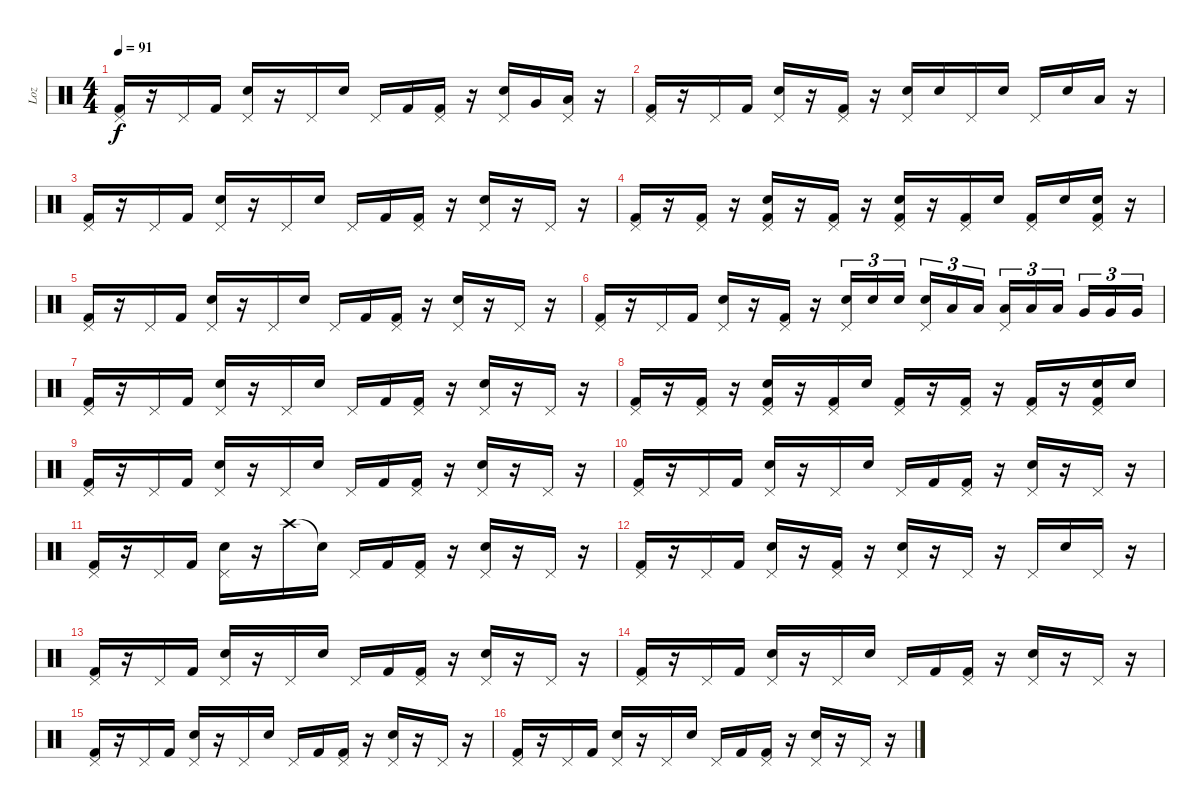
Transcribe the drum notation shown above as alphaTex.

\track ("Loz" "Loz") {instrument percussion}
\staff {score}
\articulation defaults
\ts (4 4)
\tempo 91
\clef neutral
\ks c
("Pedal Hi-Hat (hit)" "Kick (hit) 2").16{dy f} r.16 "Pedal Hi-Hat (hit)".16 "Kick (hit) 2".16 ("Pedal Hi-Hat (hit)" "Electric Snare (hit)").16 r.16 "Pedal Hi-Hat (hit)".16 "Electric Snare (hit)".16 "Pedal Hi-Hat (hit)".16 "Kick (hit) 2".16 ("Pedal Hi-Hat (hit)" "Kick (hit) 2").16 r.16 ("Pedal Hi-Hat (hit)" "Electric Snare (hit)").16 "Very Low Tom (hit)".16 ("Pedal Hi-Hat (hit)" "Low Floor Tom (hit)").16 r.16 |
("Pedal Hi-Hat (hit)" "Kick (hit) 2").16 r.16 "Pedal Hi-Hat (hit)".16 "Kick (hit) 2".16 ("Pedal Hi-Hat (hit)" "Electric Snare (hit)").16 r.16 ("Pedal Hi-Hat (hit)" "Kick (hit) 2").16 r.16 ("Pedal Hi-Hat (hit)" "Electric Snare (hit)").16 "Electric Snare (hit)".16 "Pedal Hi-Hat (hit)".16 "Electric Snare (hit)".16 "Pedal Hi-Hat (hit)".16 "Electric Snare (hit)".16 "Low Tom (hit)".16 r.16 |
("Pedal Hi-Hat (hit)" "Kick (hit) 2").16 r.16 "Pedal Hi-Hat (hit)".16 "Kick (hit) 2".16 ("Pedal Hi-Hat (hit)" "Electric Snare (hit)").16 r.16 "Pedal Hi-Hat (hit)".16 "Electric Snare (hit)".16 "Pedal Hi-Hat (hit)".16 "Kick (hit) 2".16 ("Pedal Hi-Hat (hit)" "Kick (hit) 2").16 r.16 ("Pedal Hi-Hat (hit)" "Electric Snare (hit)").16 r.16 "Pedal Hi-Hat (hit)".16 r.16 |
("Pedal Hi-Hat (hit)" "Kick (hit) 2").16 r.16 ("Pedal Hi-Hat (hit)" "Kick (hit) 2").16 r.16 ("Pedal Hi-Hat (hit)" "Electric Snare (hit)" "Kick (hit) 2").16 r.16 ("Pedal Hi-Hat (hit)" "Kick (hit) 2").16 r.16 ("Pedal Hi-Hat (hit)" "Electric Snare (hit)" "Kick (hit) 2").16 r.16 ("Pedal Hi-Hat (hit)" "Kick (hit) 2").16 "Electric Snare (hit)".16 ("Pedal Hi-Hat (hit)" "Kick (hit) 2").16 "Electric Snare (hit)".16 ("Pedal Hi-Hat (hit)" "Electric Snare (hit)" "Kick (hit) 2").16 r.16 |
("Pedal Hi-Hat (hit)" "Kick (hit) 2").16 r.16 "Pedal Hi-Hat (hit)".16 "Kick (hit) 2".16 ("Pedal Hi-Hat (hit)" "Electric Snare (hit)").16 r.16 "Pedal Hi-Hat (hit)".16 "Electric Snare (hit)".16 "Pedal Hi-Hat (hit)".16 "Kick (hit) 2".16 ("Pedal Hi-Hat (hit)" "Kick (hit) 2").16 r.16 ("Pedal Hi-Hat (hit)" "Electric Snare (hit)").16 r.16 "Pedal Hi-Hat (hit)".16 r.16 |
("Pedal Hi-Hat (hit)" "Kick (hit) 2").16 r.16 "Pedal Hi-Hat (hit)".16 "Kick (hit) 2".16 ("Pedal Hi-Hat (hit)" "Electric Snare (hit)").16 r.16 ("Pedal Hi-Hat (hit)" "Kick (hit) 2").16 r.16 ("Pedal Hi-Hat (hit)" "Electric Snare (hit)").16{tu (3 2)} "Electric Snare (hit)".16{tu (3 2)} "Electric Snare (hit)".16{tu (3 2)} ("Pedal Hi-Hat (hit)" "Electric Snare (hit)").16{tu (3 2)} "Low Tom (hit)".16{tu (3 2)} "Low Tom (hit)".16{tu (3 2)} ("Pedal Hi-Hat (hit)" "Low Tom (hit)").16{tu (3 2)} "Low Tom (hit)".16{tu (3 2)} "Low Tom (hit)".16{tu (3 2)} "Very Low Tom (hit)".16{tu (3 2)} "Very Low Tom (hit)".16{tu (3 2)} "Very Low Tom (hit)".16{tu (3 2)} |
("Pedal Hi-Hat (hit)" "Kick (hit) 2").16 r.16 "Pedal Hi-Hat (hit)".16 "Kick (hit) 2".16 ("Pedal Hi-Hat (hit)" "Electric Snare (hit)").16 r.16 "Pedal Hi-Hat (hit)".16 "Electric Snare (hit)".16 "Pedal Hi-Hat (hit)".16 "Kick (hit) 2".16 ("Pedal Hi-Hat (hit)" "Kick (hit) 2").16 r.16 ("Pedal Hi-Hat (hit)" "Electric Snare (hit)").16 r.16 "Pedal Hi-Hat (hit)".16 r.16 |
("Pedal Hi-Hat (hit)" "Kick (hit) 2").16 r.16 ("Pedal Hi-Hat (hit)" "Kick (hit) 2").16 r.16 ("Pedal Hi-Hat (hit)" "Electric Snare (hit)" "Kick (hit) 2").16 r.16 ("Pedal Hi-Hat (hit)" "Kick (hit) 2").16 "Electric Snare (hit)".16 ("Pedal Hi-Hat (hit)" "Kick (hit) 2").16 r.16 ("Pedal Hi-Hat (hit)" "Kick (hit) 2").16 r.16 ("Pedal Hi-Hat (hit)" "Kick (hit) 2").16 r.16 ("Pedal Hi-Hat (hit)" "Electric Snare (hit)" "Kick (hit) 2").16 "Electric Snare (hit)".16 |
("Pedal Hi-Hat (hit)" "Kick (hit) 2").16 r.16 "Pedal Hi-Hat (hit)".16 "Kick (hit) 2".16 ("Pedal Hi-Hat (hit)" "Electric Snare (hit)").16 r.16 "Pedal Hi-Hat (hit)".16 "Electric Snare (hit)".16 "Pedal Hi-Hat (hit)".16 "Kick (hit) 2".16 ("Pedal Hi-Hat (hit)" "Kick (hit) 2").16 r.16 ("Pedal Hi-Hat (hit)" "Electric Snare (hit)").16 r.16 "Pedal Hi-Hat (hit)".16 r.16 |
("Pedal Hi-Hat (hit)" "Kick (hit) 2").16 r.16 "Pedal Hi-Hat (hit)".16 "Kick (hit) 2".16 ("Pedal Hi-Hat (hit)" "Electric Snare (hit)").16 r.16 "Pedal Hi-Hat (hit)".16 "Electric Snare (hit)".16 "Pedal Hi-Hat (hit)".16 "Kick (hit) 2".16 ("Pedal Hi-Hat (hit)" "Kick (hit) 2").16 r.16 ("Pedal Hi-Hat (hit)" "Electric Snare (hit)").16 r.16 "Pedal Hi-Hat (hit)".16 r.16 |
("Pedal Hi-Hat (hit)" "Kick (hit) 2").16 r.16 "Pedal Hi-Hat (hit)".16 "Kick (hit) 2".16 ("Pedal Hi-Hat (hit)" "Electric Snare (hit)").16 r.16 "Crash high (hit)".16 "Snare (hit)"{t}.16 "Pedal Hi-Hat (hit)".16 "Kick (hit) 2".16 ("Pedal Hi-Hat (hit)" "Kick (hit) 2").16 r.16 ("Pedal Hi-Hat (hit)" "Electric Snare (hit)").16 r.16 "Pedal Hi-Hat (hit)".16 r.16 |
("Pedal Hi-Hat (hit)" "Kick (hit) 2").16 r.16 "Pedal Hi-Hat (hit)".16 "Kick (hit) 2".16 ("Pedal Hi-Hat (hit)" "Electric Snare (hit)").16 r.16 ("Pedal Hi-Hat (hit)" "Kick (hit) 2").16 r.16 ("Pedal Hi-Hat (hit)" "Electric Snare (hit)").16 r.16 "Pedal Hi-Hat (hit)".16 r.16 "Pedal Hi-Hat (hit)".16 "Electric Snare (hit)".16 "Pedal Hi-Hat (hit)".16 r.16 |
("Pedal Hi-Hat (hit)" "Kick (hit) 2").16 r.16 "Pedal Hi-Hat (hit)".16 "Kick (hit) 2".16 ("Pedal Hi-Hat (hit)" "Electric Snare (hit)").16 r.16 "Pedal Hi-Hat (hit)".16 "Electric Snare (hit)".16 "Pedal Hi-Hat (hit)".16 "Kick (hit) 2".16 ("Pedal Hi-Hat (hit)" "Kick (hit) 2").16 r.16 ("Pedal Hi-Hat (hit)" "Electric Snare (hit)").16 r.16 "Pedal Hi-Hat (hit)".16 r.16 |
("Pedal Hi-Hat (hit)" "Kick (hit) 2").16 r.16 "Pedal Hi-Hat (hit)".16 "Kick (hit) 2".16 ("Pedal Hi-Hat (hit)" "Electric Snare (hit)").16 r.16 "Pedal Hi-Hat (hit)".16 "Electric Snare (hit)".16 "Pedal Hi-Hat (hit)".16 "Kick (hit) 2".16 ("Pedal Hi-Hat (hit)" "Kick (hit) 2").16 r.16 ("Pedal Hi-Hat (hit)" "Electric Snare (hit)").16 r.16 "Pedal Hi-Hat (hit)".16 r.16 |
("Pedal Hi-Hat (hit)" "Kick (hit) 2").16 r.16 "Pedal Hi-Hat (hit)".16 "Kick (hit) 2".16 ("Pedal Hi-Hat (hit)" "Electric Snare (hit)").16 r.16 "Pedal Hi-Hat (hit)".16 "Electric Snare (hit)".16 "Pedal Hi-Hat (hit)".16 "Kick (hit) 2".16 ("Pedal Hi-Hat (hit)" "Kick (hit) 2").16 r.16 ("Pedal Hi-Hat (hit)" "Electric Snare (hit)").16 r.16 "Pedal Hi-Hat (hit)".16 r.16 |
("Pedal Hi-Hat (hit)" "Kick (hit) 2").16 r.16 "Pedal Hi-Hat (hit)".16 "Kick (hit) 2".16 ("Pedal Hi-Hat (hit)" "Electric Snare (hit)").16 r.16 "Pedal Hi-Hat (hit)".16 "Electric Snare (hit)".16 "Pedal Hi-Hat (hit)".16 "Kick (hit) 2".16 ("Pedal Hi-Hat (hit)" "Kick (hit) 2").16 r.16 ("Pedal Hi-Hat (hit)" "Electric Snare (hit)").16 r.16 "Pedal Hi-Hat (hit)".16 r.16
